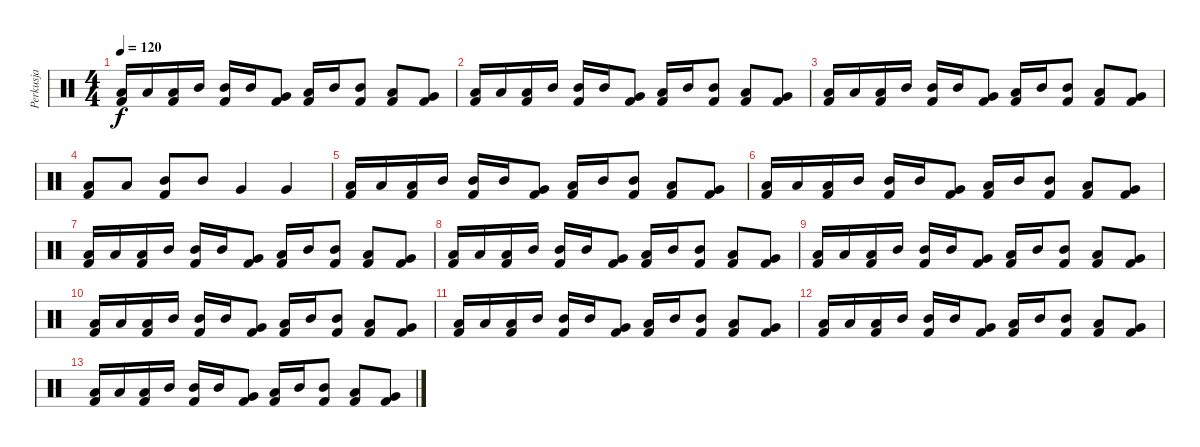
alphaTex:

\track ("Perkusja" "Perkusja") {instrument percussion}
\staff {score}
\articulation defaults
\ts (4 4)
\tempo 120
\clef neutral
\ks c
("Low Tom (hit)" "Kick (hit) 2").16{dy f} "Low Tom (hit)".16 ("Low Tom (hit)" "Kick (hit) 2").16 "Mid Tom (hit)".16 ("Mid Tom (hit)" "Kick (hit) 2").16 "Mid Tom (hit)".16 ("Very Low Tom (hit)" "Kick (hit) 2").8 ("Low Tom (hit)" "Kick (hit) 2").16 "Mid Tom (hit)".16 ("Mid Tom (hit)" "Kick (hit) 2").8 ("Low Tom (hit)" "Kick (hit) 2").8 ("Very Low Tom (hit)" "Kick (hit) 2").8 |
("Low Tom (hit)" "Kick (hit) 2").16 "Low Tom (hit)".16 ("Low Tom (hit)" "Kick (hit) 2").16 "Mid Tom (hit)".16 ("Mid Tom (hit)" "Kick (hit) 2").16 "Mid Tom (hit)".16 ("Very Low Tom (hit)" "Kick (hit) 2").8 ("Low Tom (hit)" "Kick (hit) 2").16 "Mid Tom (hit)".16 ("Mid Tom (hit)" "Kick (hit) 2").8 ("Low Tom (hit)" "Kick (hit) 2").8 ("Very Low Tom (hit)" "Kick (hit) 2").8 |
("Low Tom (hit)" "Kick (hit) 2").16 "Low Tom (hit)".16 ("Low Tom (hit)" "Kick (hit) 2").16 "Mid Tom (hit)".16 ("Mid Tom (hit)" "Kick (hit) 2").16 "Mid Tom (hit)".16 ("Very Low Tom (hit)" "Kick (hit) 2").8 ("Low Tom (hit)" "Kick (hit) 2").16 "Mid Tom (hit)".16 ("Mid Tom (hit)" "Kick (hit) 2").8 ("Low Tom (hit)" "Kick (hit) 2").8 ("Very Low Tom (hit)" "Kick (hit) 2").8 |
("Low Tom (hit)" "Kick (hit) 2").8 "Low Tom (hit)".8 ("Mid Tom (hit)" "Kick (hit) 2").8 "Mid Tom (hit)".8 "Very Low Tom (hit)".4 "Very Low Tom (hit)".4 |
("Low Tom (hit)" "Kick (hit) 2").16 "Low Tom (hit)".16 ("Low Tom (hit)" "Kick (hit) 2").16 "Mid Tom (hit)".16 ("Mid Tom (hit)" "Kick (hit) 2").16 "Mid Tom (hit)".16 ("Very Low Tom (hit)" "Kick (hit) 2").8 ("Low Tom (hit)" "Kick (hit) 2").16 "Mid Tom (hit)".16 ("Mid Tom (hit)" "Kick (hit) 2").8 ("Low Tom (hit)" "Kick (hit) 2").8 ("Very Low Tom (hit)" "Kick (hit) 2").8 |
("Low Tom (hit)" "Kick (hit) 2").16 "Low Tom (hit)".16 ("Low Tom (hit)" "Kick (hit) 2").16 "Mid Tom (hit)".16 ("Mid Tom (hit)" "Kick (hit) 2").16 "Mid Tom (hit)".16 ("Very Low Tom (hit)" "Kick (hit) 2").8 ("Low Tom (hit)" "Kick (hit) 2").16 "Mid Tom (hit)".16 ("Mid Tom (hit)" "Kick (hit) 2").8 ("Low Tom (hit)" "Kick (hit) 2").8 ("Very Low Tom (hit)" "Kick (hit) 2").8 |
("Low Tom (hit)" "Kick (hit) 2").16 "Low Tom (hit)".16 ("Low Tom (hit)" "Kick (hit) 2").16 "Mid Tom (hit)".16 ("Mid Tom (hit)" "Kick (hit) 2").16 "Mid Tom (hit)".16 ("Very Low Tom (hit)" "Kick (hit) 2").8 ("Low Tom (hit)" "Kick (hit) 2").16 "Mid Tom (hit)".16 ("Mid Tom (hit)" "Kick (hit) 2").8 ("Low Tom (hit)" "Kick (hit) 2").8 ("Very Low Tom (hit)" "Kick (hit) 2").8 |
("Low Tom (hit)" "Kick (hit) 2").16 "Low Tom (hit)".16 ("Low Tom (hit)" "Kick (hit) 2").16 "Mid Tom (hit)".16 ("Mid Tom (hit)" "Kick (hit) 2").16 "Mid Tom (hit)".16 ("Very Low Tom (hit)" "Kick (hit) 2").8 ("Low Tom (hit)" "Kick (hit) 2").16 "Mid Tom (hit)".16 ("Mid Tom (hit)" "Kick (hit) 2").8 ("Low Tom (hit)" "Kick (hit) 2").8 ("Very Low Tom (hit)" "Kick (hit) 2").8 |
("Low Tom (hit)" "Kick (hit) 2").16 "Low Tom (hit)".16 ("Low Tom (hit)" "Kick (hit) 2").16 "Mid Tom (hit)".16 ("Mid Tom (hit)" "Kick (hit) 2").16 "Mid Tom (hit)".16 ("Very Low Tom (hit)" "Kick (hit) 2").8 ("Low Tom (hit)" "Kick (hit) 2").16 "Mid Tom (hit)".16 ("Mid Tom (hit)" "Kick (hit) 2").8 ("Low Tom (hit)" "Kick (hit) 2").8 ("Very Low Tom (hit)" "Kick (hit) 2").8 |
("Low Tom (hit)" "Kick (hit) 2").16 "Low Tom (hit)".16 ("Low Tom (hit)" "Kick (hit) 2").16 "Mid Tom (hit)".16 ("Mid Tom (hit)" "Kick (hit) 2").16 "Mid Tom (hit)".16 ("Very Low Tom (hit)" "Kick (hit) 2").8 ("Low Tom (hit)" "Kick (hit) 2").16 "Mid Tom (hit)".16 ("Mid Tom (hit)" "Kick (hit) 2").8 ("Low Tom (hit)" "Kick (hit) 2").8 ("Very Low Tom (hit)" "Kick (hit) 2").8 |
("Low Tom (hit)" "Kick (hit) 2").16 "Low Tom (hit)".16 ("Low Tom (hit)" "Kick (hit) 2").16 "Mid Tom (hit)".16 ("Mid Tom (hit)" "Kick (hit) 2").16 "Mid Tom (hit)".16 ("Very Low Tom (hit)" "Kick (hit) 2").8 ("Low Tom (hit)" "Kick (hit) 2").16 "Mid Tom (hit)".16 ("Mid Tom (hit)" "Kick (hit) 2").8 ("Low Tom (hit)" "Kick (hit) 2").8 ("Very Low Tom (hit)" "Kick (hit) 2").8 |
("Low Tom (hit)" "Kick (hit) 2").16 "Low Tom (hit)".16 ("Low Tom (hit)" "Kick (hit) 2").16 "Mid Tom (hit)".16 ("Mid Tom (hit)" "Kick (hit) 2").16 "Mid Tom (hit)".16 ("Very Low Tom (hit)" "Kick (hit) 2").8 ("Low Tom (hit)" "Kick (hit) 2").16 "Mid Tom (hit)".16 ("Mid Tom (hit)" "Kick (hit) 2").8 ("Low Tom (hit)" "Kick (hit) 2").8 ("Very Low Tom (hit)" "Kick (hit) 2").8 |
("Low Tom (hit)" "Kick (hit) 2").16 "Low Tom (hit)".16 ("Low Tom (hit)" "Kick (hit) 2").16 "Mid Tom (hit)".16 ("Mid Tom (hit)" "Kick (hit) 2").16 "Mid Tom (hit)".16 ("Very Low Tom (hit)" "Kick (hit) 2").8 ("Low Tom (hit)" "Kick (hit) 2").16 "Mid Tom (hit)".16 ("Mid Tom (hit)" "Kick (hit) 2").8 ("Low Tom (hit)" "Kick (hit) 2").8 ("Very Low Tom (hit)" "Kick (hit) 2").8
